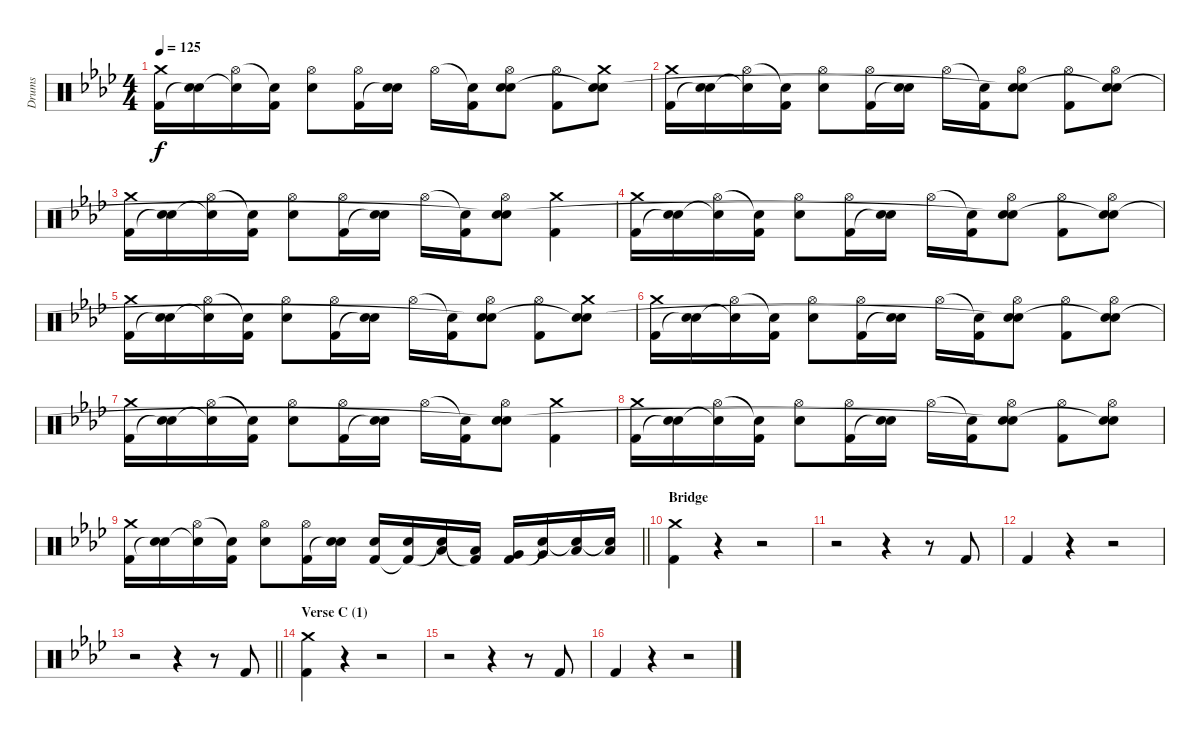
\track ("Drums" "Drums") {instrument percussion}
\staff {score}
\articulation defaults
\ts (4 4)
\tempo 125
\clef neutral
\ks ab
("Crash medium (hit)" "Kick (hit) 2").16{dy f} ("Electric Snare (hit)" "Snare (hit)"{t}).16 ("Hi-Hat (open)" "Snare (hit)"{t}).16 ("Snare (hit)"{t} "Kick (hit) 2").16 ("Hi-Hat (open)" "Electric Snare (hit)").8 ("Hi-Hat (open)" "Kick (hit) 2").16 ("Electric Snare (hit)" "Snare (hit)"{t}).16 "Hi-Hat (open)".16 ("Snare (hit)"{t} "Kick (hit) 2").16 ("Hi-Hat (open)" "Electric Snare (hit)" "Snare (hit)"{t}).8 ("Hi-Hat (open)" "Kick (hit) 2").8 ("Crash medium (hit)" "Electric Snare (hit)" "Snare (hit)"{t}).8 |
("Crash medium (hit)" "Kick (hit) 2").16 ("Electric Snare (hit)" "Snare (hit)"{t}).16 ("Hi-Hat (open)" "Snare (hit)"{t}).16 ("Snare (hit)"{t} "Kick (hit) 2").16 ("Hi-Hat (open)" "Electric Snare (hit)").8 ("Hi-Hat (open)" "Kick (hit) 2").16 ("Electric Snare (hit)" "Snare (hit)"{t}).16 "Hi-Hat (open)".16 ("Snare (hit)"{t} "Kick (hit) 2").16 ("Hi-Hat (open)" "Electric Snare (hit)" "Snare (hit)"{t}).8 ("Hi-Hat (open)" "Kick (hit) 2").8 ("Hi-Hat (open)" "Electric Snare (hit)" "Snare (hit)"{t}).8 |
("Crash medium (hit)" "Kick (hit) 2").16 ("Electric Snare (hit)" "Snare (hit)"{t}).16 ("Hi-Hat (open)" "Snare (hit)"{t}).16 ("Snare (hit)"{t} "Kick (hit) 2").16 ("Hi-Hat (open)" "Electric Snare (hit)").8 ("Hi-Hat (open)" "Kick (hit) 2").16 ("Electric Snare (hit)" "Snare (hit)"{t}).16 "Hi-Hat (open)".16 ("Snare (hit)"{t} "Kick (hit) 2").16 ("Hi-Hat (open)" "Electric Snare (hit)" "Snare (hit)"{t}).8 ("Crash medium (hit)" "Kick (hit) 2").4 |
("Crash medium (hit)" "Kick (hit) 2").16 ("Electric Snare (hit)" "Snare (hit)"{t}).16 ("Hi-Hat (open)" "Snare (hit)"{t}).16 ("Snare (hit)"{t} "Kick (hit) 2").16 ("Hi-Hat (open)" "Electric Snare (hit)").8 ("Hi-Hat (open)" "Kick (hit) 2").16 ("Electric Snare (hit)" "Snare (hit)"{t}).16 "Hi-Hat (open)".16 ("Snare (hit)"{t} "Kick (hit) 2").16 ("Hi-Hat (open)" "Electric Snare (hit)" "Snare (hit)"{t}).8 ("Hi-Hat (open)" "Kick (hit) 2").8 ("Hi-Hat (open)" "Electric Snare (hit)" "Snare (hit)"{t}).8 |
("Crash medium (hit)" "Kick (hit) 2").16 ("Electric Snare (hit)" "Snare (hit)"{t}).16 ("Hi-Hat (open)" "Snare (hit)"{t}).16 ("Snare (hit)"{t} "Kick (hit) 2").16 ("Hi-Hat (open)" "Electric Snare (hit)").8 ("Hi-Hat (open)" "Kick (hit) 2").16 ("Electric Snare (hit)" "Snare (hit)"{t}).16 "Hi-Hat (open)".16 ("Snare (hit)"{t} "Kick (hit) 2").16 ("Hi-Hat (open)" "Electric Snare (hit)" "Snare (hit)"{t}).8 ("Hi-Hat (open)" "Kick (hit) 2").8 ("Crash medium (hit)" "Electric Snare (hit)" "Snare (hit)"{t}).8 |
("Crash medium (hit)" "Kick (hit) 2").16 ("Electric Snare (hit)" "Snare (hit)"{t}).16 ("Hi-Hat (open)" "Snare (hit)"{t}).16 ("Snare (hit)"{t} "Kick (hit) 2").16 ("Hi-Hat (open)" "Electric Snare (hit)").8 ("Hi-Hat (open)" "Kick (hit) 2").16 ("Electric Snare (hit)" "Snare (hit)"{t}).16 "Hi-Hat (open)".16 ("Snare (hit)"{t} "Kick (hit) 2").16 ("Hi-Hat (open)" "Electric Snare (hit)" "Snare (hit)"{t}).8 ("Hi-Hat (open)" "Kick (hit) 2").8 ("Hi-Hat (open)" "Electric Snare (hit)" "Snare (hit)"{t}).8 |
("Crash medium (hit)" "Kick (hit) 2").16 ("Electric Snare (hit)" "Snare (hit)"{t}).16 ("Hi-Hat (open)" "Snare (hit)"{t}).16 ("Snare (hit)"{t} "Kick (hit) 2").16 ("Hi-Hat (open)" "Electric Snare (hit)").8 ("Hi-Hat (open)" "Kick (hit) 2").16 ("Electric Snare (hit)" "Snare (hit)"{t}).16 "Hi-Hat (open)".16 ("Snare (hit)"{t} "Kick (hit) 2").16 ("Hi-Hat (open)" "Electric Snare (hit)" "Snare (hit)"{t}).8 ("Crash medium (hit)" "Kick (hit) 2").4 |
("Crash medium (hit)" "Kick (hit) 2").16 ("Electric Snare (hit)" "Snare (hit)"{t}).16 ("Hi-Hat (open)" "Snare (hit)"{t}).16 ("Snare (hit)"{t} "Kick (hit) 2").16 ("Hi-Hat (open)" "Electric Snare (hit)").8 ("Hi-Hat (open)" "Kick (hit) 2").16 ("Electric Snare (hit)" "Snare (hit)"{t}).16 "Hi-Hat (open)".16 ("Snare (hit)"{t} "Kick (hit) 2").16 ("Hi-Hat (open)" "Electric Snare (hit)" "Snare (hit)"{t}).8 ("Hi-Hat (open)" "Kick (hit) 2").8 ("Hi-Hat (open)" "Electric Snare (hit)" "Snare (hit)"{t}).8 |
\barLineRight lightlight
("Crash medium (hit)" "Kick (hit) 2").16 ("Electric Snare (hit)" "Snare (hit)"{t}).16 ("Hi-Hat (open)" "Snare (hit)"{t}).16 ("Snare (hit)"{t} "Kick (hit) 2").16 ("Hi-Hat (open)" "Electric Snare (hit)").8 ("Hi-Hat (open)" "Kick (hit) 2").16 ("Electric Snare (hit)" "Snare (hit)"{t}).16 ("Electric Snare (hit)" "Kick (hit) 2").16 ("Electric Snare (hit)" "Kick (hit) 2"{t}).16 ("Low Tom (hit)" "Snare (hit)"{t}).16 ("Low Tom (hit)" "Kick (hit) 2"{t}).16 ("Very Low Tom (hit)" "Kick (hit) 2").16 ("Very Low Tom (hit)" "Snare (hit)"{t}).16 ("Low Floor Tom (hit)" "Snare (hit)"{t}).16 ("Low Floor Tom (hit)" "Snare (hit)"{t}).16 |
\section ("" "Bridge")
("Crash medium (hit)" "Kick (hit) 2").4 r.4 r.2 |
r.2 r.4 r.8 "Kick (hit) 2".8 |
"Kick (hit) 2".4 r.4 r.2 |
\barLineRight lightlight
r.2 r.4 r.8 "Kick (hit) 2".8 |
\section ("" "Verse C (1)")
("Crash medium (hit)" "Kick (hit) 2").4 r.4 r.2 |
r.2 r.4 r.8 "Kick (hit) 2".8 |
"Kick (hit) 2".4 r.4 r.2
